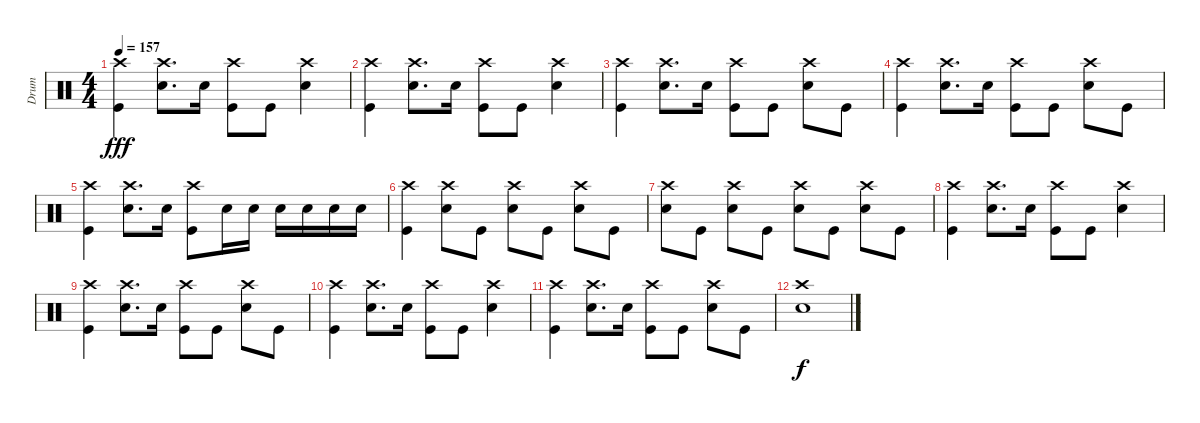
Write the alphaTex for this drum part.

\track ("Drum" "Drum") {instrument percussion}
\staff {score}
\articulation defaults
\ts (4 4)
\tempo 157
\clef neutral
\ks c
("Crash high (hit)" "Kick (hit)").4{dy fff} ("Crash high (hit)" "Snare (hit) 2").8{d} "Snare (hit) 2".16 ("Crash high (hit)" "Kick (hit)").8 "Kick (hit)".8 ("Crash high (hit)" "Snare (hit) 2").4 |
("Crash high (hit)" "Kick (hit)").4 ("Crash high (hit)" "Snare (hit) 2").8{d} "Snare (hit) 2".16 ("Crash high (hit)" "Kick (hit)").8 "Kick (hit)".8 ("Crash high (hit)" "Snare (hit) 2").4 |
("Crash high (hit)" "Kick (hit)").4 ("Crash high (hit)" "Snare (hit) 2").8{d} "Snare (hit) 2".16 ("Crash high (hit)" "Kick (hit)").8 "Kick (hit)".8 ("Crash high (hit)" "Snare (hit) 2").8 "Kick (hit)".8 |
("Crash high (hit)" "Kick (hit)").4 ("Crash high (hit)" "Snare (hit) 2").8{d} "Snare (hit) 2".16 ("Crash high (hit)" "Kick (hit)").8 "Kick (hit)".8 ("Crash high (hit)" "Snare (hit) 2").8 "Kick (hit)".8 |
("Crash high (hit)" "Kick (hit)").4 ("Crash high (hit)" "Snare (hit) 2").8{d} "Snare (hit) 2".16 ("Crash high (hit)" "Kick (hit)").8 "Snare (hit) 2".16 "Snare (hit) 2".16 "Snare (hit) 2".16 "Snare (hit) 2".16 "Snare (hit) 2".16 "Snare (hit) 2".16 |
("Crash high (hit)" "Kick (hit)").4 ("Crash high (hit)" "Snare (hit) 2").8 "Kick (hit)".8 ("Crash high (hit)" "Snare (hit) 2").8 "Kick (hit)".8 ("Crash high (hit)" "Snare (hit) 2").8 "Kick (hit)".8 |
("Crash high (hit)" "Snare (hit) 2").8 "Kick (hit)".8 ("Crash high (hit)" "Snare (hit) 2").8 "Kick (hit)".8 ("Crash high (hit)" "Snare (hit) 2").8 "Kick (hit)".8 ("Crash high (hit)" "Snare (hit) 2").8 "Kick (hit)".8 |
("Crash high (hit)" "Kick (hit)").4 ("Crash high (hit)" "Snare (hit) 2").8{d} "Snare (hit) 2".16 ("Crash high (hit)" "Kick (hit)").8 "Kick (hit)".8 ("Crash high (hit)" "Snare (hit) 2").4 |
("Crash high (hit)" "Kick (hit)").4 ("Crash high (hit)" "Snare (hit) 2").8{d} "Snare (hit) 2".16 ("Crash high (hit)" "Kick (hit)").8 "Kick (hit)".8 ("Crash high (hit)" "Snare (hit) 2").8 "Kick (hit)".8 |
("Crash high (hit)" "Kick (hit)").4 ("Crash high (hit)" "Snare (hit) 2").8{d} "Snare (hit) 2".16 ("Crash high (hit)" "Kick (hit)").8 "Kick (hit)".8 ("Crash high (hit)" "Snare (hit) 2").4 |
("Crash high (hit)" "Kick (hit)").4 ("Crash high (hit)" "Snare (hit) 2").8{d} "Snare (hit) 2".16 ("Crash high (hit)" "Kick (hit)").8 "Kick (hit)".8 ("Crash high (hit)" "Snare (hit) 2").8 "Kick (hit)".8 |
("Crash high (hit)" "Snare (hit) 2").1{dy f}
